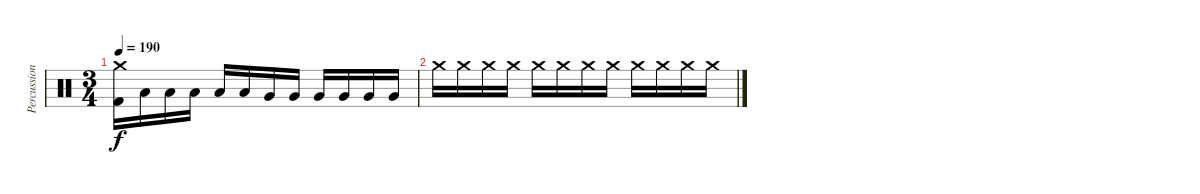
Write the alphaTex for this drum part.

\track ("Percussion" "Percussion") {instrument percussion}
\staff {score}
\articulation defaults
\ts (3 4)
\tempo 190
\clef neutral
\ks c
("Crash medium (hit)" "Kick (hit) 2").16{dy f} "Low Tom (hit)".16 "Low Tom (hit)".16 "Low Tom (hit)".16 "Low Tom (hit)".16 "Low Tom (hit)".16 "Very Low Tom (hit)".16 "Very Low Tom (hit)".16 "Very Low Tom (hit)".16 "Very Low Tom (hit)".16 "Very Low Tom (hit)".16 "Very Low Tom (hit)".16 |
"Crash medium (hit)".16{volume 6} "Crash medium (hit)".16 "Crash medium (hit)".16 "Crash medium (hit)".16{volume 8} "Crash medium (hit)".16 "Crash medium (hit)".16 "Crash medium (hit)".16{volume 12} "Crash medium (hit)".16 "Crash medium (hit)".16 "Crash medium (hit)".16{volume 11} "Crash medium (hit)".16 "Crash medium (hit)".16
